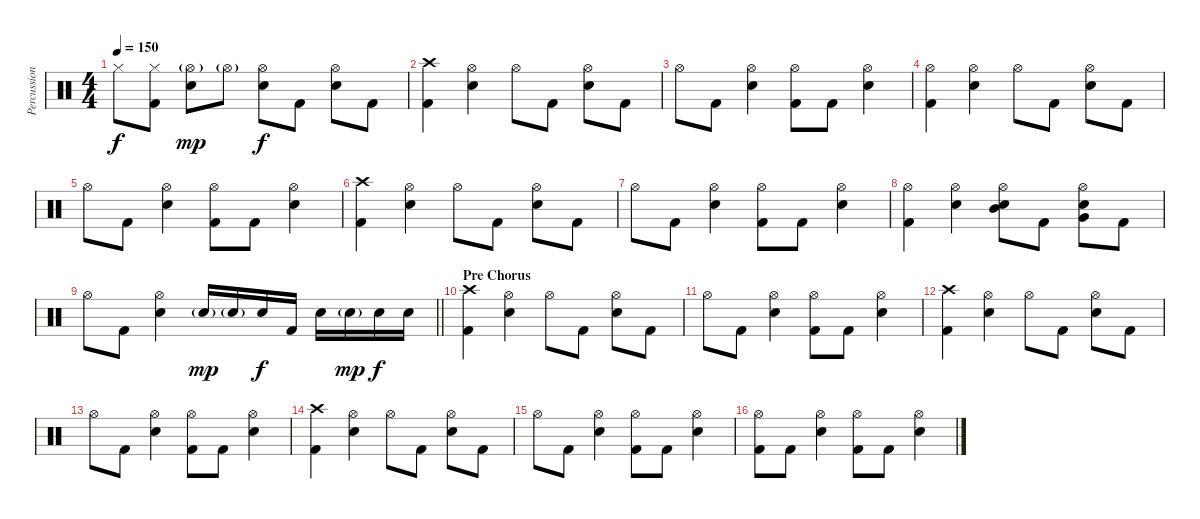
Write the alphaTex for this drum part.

\track ("Percussion" "Percussion") {instrument percussion}
\staff {score}
\articulation defaults
\ts (4 4)
\tempo 150
\clef neutral
\ks c "Hi-Hat (closed)".8{dy f}
("Hi-Hat (closed)" "Kick (hit) 2").8 ("Hi-Hat (open)"{g} "Electric Snare (hit)").8{dy mp} "Hi-Hat (open)"{g}.8 ("Hi-Hat (open)" "Electric Snare (hit)").8{dy f} "Kick (hit) 2".8 ("Hi-Hat (open)" "Electric Snare (hit)").8 "Kick (hit) 2".8 |
("Crash high (hit)" "Kick (hit) 2").4 ("Hi-Hat (open)" "Electric Snare (hit)").4 "Hi-Hat (open)".8 "Kick (hit) 2".8 ("Hi-Hat (open)" "Electric Snare (hit)").8 "Kick (hit) 2".8 |
"Hi-Hat (open)".8 "Kick (hit) 2".8 ("Hi-Hat (open)" "Electric Snare (hit)").4 ("Hi-Hat (open)" "Kick (hit) 2").8 "Kick (hit) 2".8 ("Hi-Hat (open)" "Electric Snare (hit)").4 |
("Hi-Hat (open)" "Kick (hit) 2").4 ("Hi-Hat (open)" "Electric Snare (hit)").4 "Hi-Hat (open)".8 "Kick (hit) 2".8 ("Hi-Hat (open)" "Electric Snare (hit)").8 "Kick (hit) 2".8 |
"Hi-Hat (open)".8 "Kick (hit) 2".8 ("Hi-Hat (open)" "Electric Snare (hit)").4 ("Hi-Hat (open)" "Kick (hit) 2").8 "Kick (hit) 2".8 ("Hi-Hat (open)" "Electric Snare (hit)").4 |
("Crash high (hit)" "Kick (hit) 2").4 ("Hi-Hat (open)" "Electric Snare (hit)").4 "Hi-Hat (open)".8 "Kick (hit) 2".8 ("Hi-Hat (open)" "Electric Snare (hit)").8 "Kick (hit) 2".8 |
"Hi-Hat (open)".8 "Kick (hit) 2".8 ("Hi-Hat (open)" "Electric Snare (hit)").4 ("Hi-Hat (open)" "Kick (hit) 2").8 "Kick (hit) 2".8 ("Hi-Hat (open)" "Electric Snare (hit)").4 |
("Hi-Hat (open)" "Kick (hit) 2").4 ("Hi-Hat (open)" "Electric Snare (hit)").4 ("Hi-Hat (open)" "Mid Tom (hit)" "Electric Snare (hit)").8 "Kick (hit) 2".8 ("Hi-Hat (open)" "Very Low Tom (hit)" "Electric Snare (hit)").8 "Kick (hit) 2".8 |
\barLineRight lightlight "Hi-Hat (open)".8 "Kick (hit) 2".8
("Hi-Hat (open)" "Electric Snare (hit)").4 "Electric Snare (hit)"{g}.16{dy mp} "Electric Snare (hit)"{g}.16 "Electric Snare (hit)".16{dy f} "Kick (hit) 2".16 "Electric Snare (hit)".16 "Electric Snare (hit)"{g}.16{dy mp} "Electric Snare (hit)".16{dy f} "Electric Snare (hit)".16 |
\section ("" "Pre Chorus")
("Crash high (hit)" "Kick (hit) 2").4 ("Hi-Hat (open)" "Electric Snare (hit)").4 "Hi-Hat (open)".8 "Kick (hit) 2".8 ("Hi-Hat (open)" "Electric Snare (hit)").8 "Kick (hit) 2".8 |
"Hi-Hat (open)".8 "Kick (hit) 2".8 ("Hi-Hat (open)" "Electric Snare (hit)").4 ("Hi-Hat (open)" "Kick (hit) 2").8 "Kick (hit) 2".8 ("Hi-Hat (open)" "Electric Snare (hit)").4 |
("Crash high (hit)" "Kick (hit) 2").4 ("Hi-Hat (open)" "Electric Snare (hit)").4 "Hi-Hat (open)".8 "Kick (hit) 2".8 ("Hi-Hat (open)" "Electric Snare (hit)").8 "Kick (hit) 2".8 |
"Hi-Hat (open)".8 "Kick (hit) 2".8 ("Hi-Hat (open)" "Electric Snare (hit)").4 ("Hi-Hat (open)" "Kick (hit) 2").8 "Kick (hit) 2".8 ("Hi-Hat (open)" "Electric Snare (hit)").4 |
("Crash high (hit)" "Kick (hit) 2").4 ("Hi-Hat (open)" "Electric Snare (hit)").4 "Hi-Hat (open)".8 "Kick (hit) 2".8 ("Hi-Hat (open)" "Electric Snare (hit)").8 "Kick (hit) 2".8 |
"Hi-Hat (open)".8 "Kick (hit) 2".8 ("Hi-Hat (open)" "Electric Snare (hit)").4 ("Hi-Hat (open)" "Kick (hit) 2").8 "Kick (hit) 2".8 ("Hi-Hat (open)" "Electric Snare (hit)").4 |
("Hi-Hat (open)" "Kick (hit) 2").8 "Kick (hit) 2".8 ("Hi-Hat (open)" "Electric Snare (hit)").4 ("Hi-Hat (open)" "Kick (hit) 2").8 "Kick (hit) 2".8 ("Hi-Hat (open)" "Electric Snare (hit)").4
